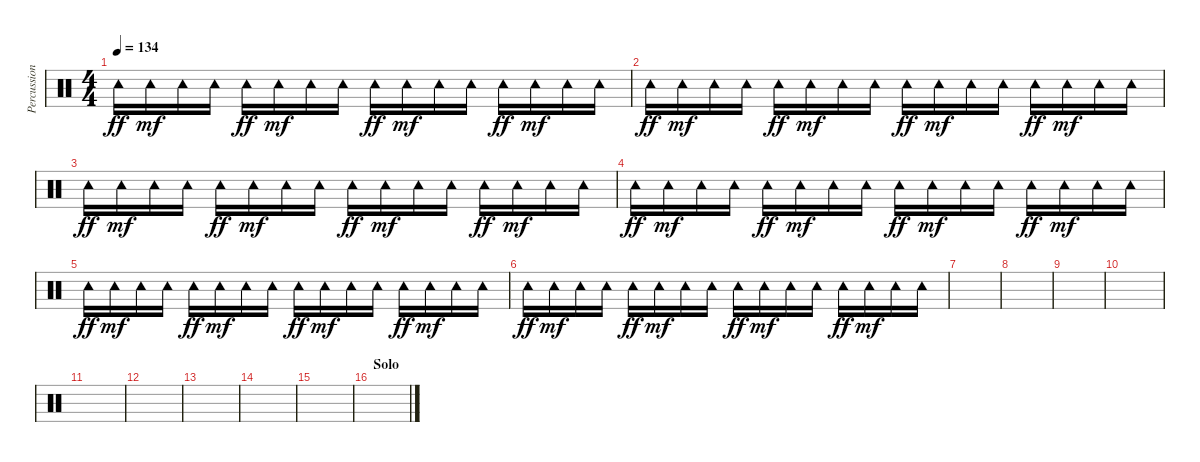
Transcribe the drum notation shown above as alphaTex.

\track ("Percussion" "Percussion") {instrument percussion}
\staff {score}
\articulation defaults
\ts (4 4)
\tempo 134
\clef neutral
\ks c "Tambourine (hit)".16{dy ff} "Tambourine (hit)".16{dy mf} "Tambourine (hit)".16 "Tambourine (hit)".16 "Tambourine (hit)".16{dy ff} "Tambourine (hit)".16{dy mf} "Tambourine (hit)".16 "Tambourine (hit)".16 "Tambourine (hit)".16{dy ff} "Tambourine (hit)".16{dy mf} "Tambourine (hit)".16 "Tambourine (hit)".16 "Tambourine (hit)".16{dy ff} "Tambourine (hit)".16{dy mf} "Tambourine (hit)".16 "Tambourine (hit)".16
|
"Tambourine (hit)".16{dy ff} "Tambourine (hit)".16{dy mf} "Tambourine (hit)".16 "Tambourine (hit)".16 "Tambourine (hit)".16{dy ff} "Tambourine (hit)".16{dy mf} "Tambourine (hit)".16 "Tambourine (hit)".16 "Tambourine (hit)".16{dy ff} "Tambourine (hit)".16{dy mf} "Tambourine (hit)".16 "Tambourine (hit)".16 "Tambourine (hit)".16{dy ff} "Tambourine (hit)".16{dy mf} "Tambourine (hit)".16 "Tambourine (hit)".16 |
"Tambourine (hit)".16{dy ff} "Tambourine (hit)".16{dy mf} "Tambourine (hit)".16 "Tambourine (hit)".16 "Tambourine (hit)".16{dy ff} "Tambourine (hit)".16{dy mf} "Tambourine (hit)".16 "Tambourine (hit)".16 "Tambourine (hit)".16{dy ff} "Tambourine (hit)".16{dy mf} "Tambourine (hit)".16 "Tambourine (hit)".16 "Tambourine (hit)".16{dy ff} "Tambourine (hit)".16{dy mf} "Tambourine (hit)".16 "Tambourine (hit)".16 |
"Tambourine (hit)".16{dy ff} "Tambourine (hit)".16{dy mf} "Tambourine (hit)".16 "Tambourine (hit)".16 "Tambourine (hit)".16{dy ff} "Tambourine (hit)".16{dy mf} "Tambourine (hit)".16 "Tambourine (hit)".16 "Tambourine (hit)".16{dy ff} "Tambourine (hit)".16{dy mf} "Tambourine (hit)".16 "Tambourine (hit)".16 "Tambourine (hit)".16{dy ff} "Tambourine (hit)".16{dy mf} "Tambourine (hit)".16 "Tambourine (hit)".16 |
"Tambourine (hit)".16{dy ff} "Tambourine (hit)".16{dy mf} "Tambourine (hit)".16 "Tambourine (hit)".16 "Tambourine (hit)".16{dy ff} "Tambourine (hit)".16{dy mf} "Tambourine (hit)".16 "Tambourine (hit)".16 "Tambourine (hit)".16{dy ff} "Tambourine (hit)".16{dy mf} "Tambourine (hit)".16 "Tambourine (hit)".16 "Tambourine (hit)".16{dy ff} "Tambourine (hit)".16{dy mf} "Tambourine (hit)".16 "Tambourine (hit)".16 |
"Tambourine (hit)".16{dy ff} "Tambourine (hit)".16{dy mf} "Tambourine (hit)".16 "Tambourine (hit)".16 "Tambourine (hit)".16{dy ff} "Tambourine (hit)".16{dy mf} "Tambourine (hit)".16 "Tambourine (hit)".16 "Tambourine (hit)".16{dy ff} "Tambourine (hit)".16{dy mf} "Tambourine (hit)".16 "Tambourine (hit)".16 "Tambourine (hit)".16{dy ff} "Tambourine (hit)".16{dy mf} "Tambourine (hit)".16 "Tambourine (hit)".16 |
|
|
|
|
|
|
|
|
|
\section ("" "Solo")
